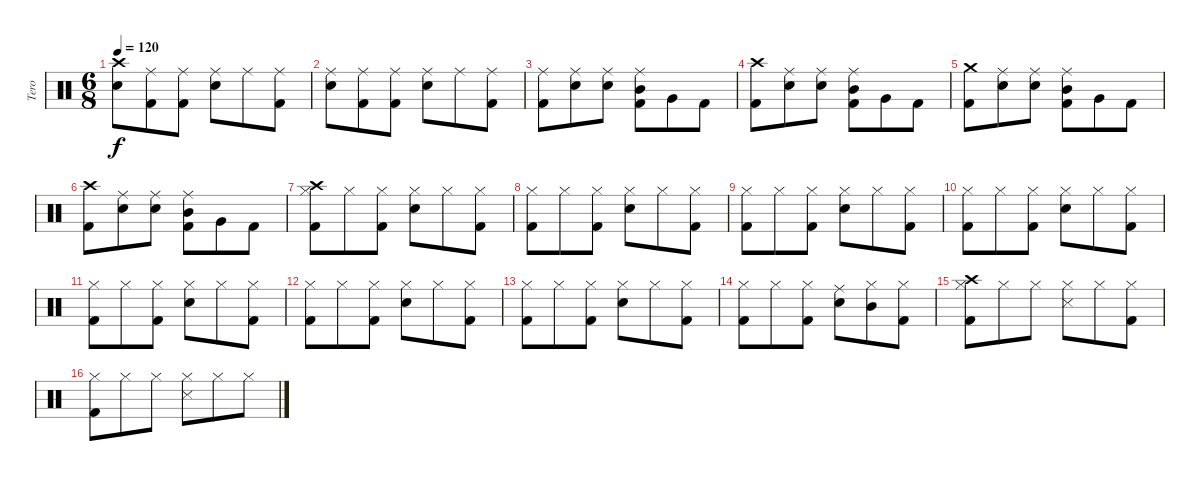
\track ("Tero" "Tero") {instrument percussion}
\staff {score}
\articulation defaults
\ts (6 8)
\tempo 120
\clef neutral
\ks c
("Crash high (hit)" "Snare (hit) 2").8{dy f} ("Ride (middle)" "Kick (hit) 2").8 ("Ride (middle)" "Kick (hit) 2").8 ("Ride (middle)" "Snare (hit) 2").8 "Ride (middle)".8 ("Ride (middle)" "Kick (hit) 2").8 |
("Ride (middle)" "Snare (hit) 2").8 ("Ride (middle)" "Kick (hit) 2").8 ("Ride (middle)" "Kick (hit) 2").8 ("Ride (middle)" "Snare (hit) 2").8 "Ride (middle)".8 ("Ride (middle)" "Kick (hit) 2").8 |
("Kick (hit) 2" "Ride (middle)").8 ("Snare (hit) 2" "Ride (middle)").8 ("Snare (hit) 2" "Ride (middle)").8 ("Ride (middle)" "Mid Tom (hit)" "Kick (hit) 2").8 "Very Low Tom (hit)".8 "Kick (hit) 2".8 |
("Crash high (hit)" "Kick (hit) 2").8 ("Snare (hit) 2" "Ride (middle)").8 ("Snare (hit) 2" "Ride (middle)").8 ("Ride (middle)" "Mid Tom (hit)" "Kick (hit) 2").8 "Very Low Tom (hit)".8 "Kick (hit) 2".8 |
("Crash medium (hit)" "Kick (hit) 2").8 ("Snare (hit) 2" "Ride (middle)").8 ("Snare (hit) 2" "Ride (middle)").8 ("Ride (middle)" "Mid Tom (hit)" "Kick (hit) 2").8 "Very Low Tom (hit)".8 "Kick (hit) 2".8 |
("Crash high (hit)" "Kick (hit) 2").8 ("Snare (hit) 2" "Ride (middle)").8 ("Snare (hit) 2" "Ride (middle)").8 ("Ride (middle)" "Mid Tom (hit)" "Kick (hit) 2").8 "Very Low Tom (hit)".8 "Kick (hit) 2".8 |
("Kick (hit) 2" "Crash high (hit)" "Hi-Hat (closed)").8 "Hi-Hat (closed)".8 ("Kick (hit) 2" "Hi-Hat (closed)").8 ("Snare (hit) 2" "Hi-Hat (closed)").8 "Hi-Hat (closed)".8 ("Kick (hit) 2" "Hi-Hat (closed)").8 |
("Kick (hit) 2" "Hi-Hat (closed)").8 "Hi-Hat (closed)".8 ("Kick (hit) 2" "Hi-Hat (closed)").8 ("Snare (hit) 2" "Hi-Hat (closed)").8 "Hi-Hat (closed)".8 ("Kick (hit) 2" "Hi-Hat (closed)").8 |
("Kick (hit) 2" "Hi-Hat (closed)").8 "Hi-Hat (closed)".8 ("Kick (hit) 2" "Hi-Hat (closed)").8 ("Snare (hit) 2" "Hi-Hat (closed)").8 "Hi-Hat (closed)".8 ("Kick (hit) 2" "Hi-Hat (closed)").8 |
("Kick (hit) 2" "Hi-Hat (closed)").8 "Hi-Hat (closed)".8 ("Kick (hit) 2" "Hi-Hat (closed)").8 ("Snare (hit) 2" "Hi-Hat (closed)").8 "Hi-Hat (closed)".8 ("Kick (hit) 2" "Hi-Hat (closed)").8 |
("Kick (hit) 2" "Hi-Hat (closed)").8 "Hi-Hat (closed)".8 ("Kick (hit) 2" "Hi-Hat (closed)").8 ("Snare (hit) 2" "Hi-Hat (closed)").8 "Hi-Hat (closed)".8 ("Kick (hit) 2" "Hi-Hat (closed)").8 |
("Kick (hit) 2" "Hi-Hat (closed)").8 "Hi-Hat (closed)".8 ("Kick (hit) 2" "Hi-Hat (closed)").8 ("Snare (hit) 2" "Hi-Hat (closed)").8 "Hi-Hat (closed)".8 ("Kick (hit) 2" "Hi-Hat (closed)").8 |
("Kick (hit) 2" "Hi-Hat (closed)").8 "Hi-Hat (closed)".8 ("Kick (hit) 2" "Hi-Hat (closed)").8 ("Snare (hit) 2" "Hi-Hat (closed)").8 "Hi-Hat (closed)".8 ("Kick (hit) 2" "Hi-Hat (closed)").8 |
("Kick (hit) 2" "Hi-Hat (closed)").8 "Hi-Hat (closed)".8 ("Kick (hit) 2" "Hi-Hat (closed)").8 ("Snare (hit) 2" "Ride (middle)").8 ("Mid Tom (hit)" "Hi-Hat (closed)").8 ("Kick (hit) 2" "Hi-Hat (closed)").8 |
("Kick (hit) 2" "Crash high (hit)" "Hi-Hat (closed)").8 "Hi-Hat (closed)".8 "Hi-Hat (closed)".8 ("Hi-Hat (closed)" "Snare (side stick) 3").8 "Hi-Hat (closed)".8 ("Hi-Hat (closed)" "Kick (hit) 2").8 |
("Hi-Hat (closed)" "Kick (hit) 2").8 "Hi-Hat (closed)".8 "Hi-Hat (closed)".8 ("Hi-Hat (closed)" "Snare (side stick) 3").8 "Hi-Hat (closed)".8 "Hi-Hat (closed)".8
